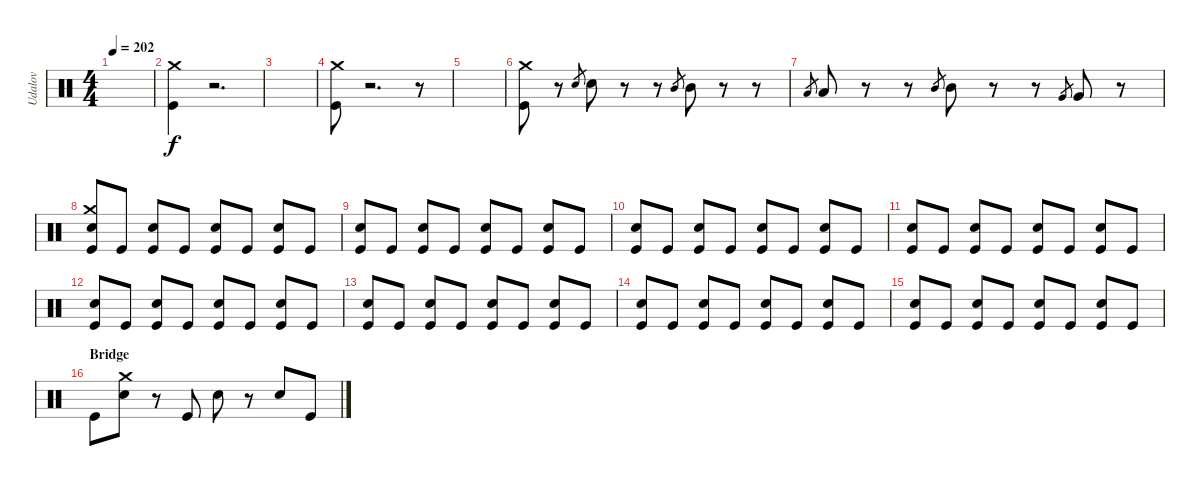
\track ("Udalov" "Udalov") {instrument percussion}
\staff {score}
\articulation defaults
\ts (4 4)
\tempo 202
\clef neutral
\ks c
|
("Kick (hit)" "Crash medium (hit)").4 r.2{d} |
|
("Kick (hit)" "Crash medium (hit)").8 r.2{d} r.8 |
|
("Kick (hit)" "Crash medium (hit)").8 r.8 "Electric Snare (hit)".8{gr} "Electric Snare (hit)".8 r.8 r.8 "Mid Tom (hit)".8{gr} "Mid Tom (hit)".8 r.8 r.8 |
"Low Tom (hit)".8{gr} "Low Tom (hit)".8 r.8 r.8 "Mid Tom (hit)".8{gr} "Mid Tom (hit)".8 r.8 r.8 "Very Low Tom (hit)".8{gr} "Very Low Tom (hit)".8 r.8 |
("Kick (hit)" "Electric Snare (hit)" "Crash medium (hit)").8 "Kick (hit)".8 ("Kick (hit)" "Electric Snare (hit)").8 "Kick (hit)".8 ("Kick (hit)" "Electric Snare (hit)").8 "Kick (hit)".8 ("Kick (hit)" "Electric Snare (hit)").8 "Kick (hit)".8 |
("Kick (hit)" "Electric Snare (hit)").8 "Kick (hit)".8 ("Kick (hit)" "Electric Snare (hit)").8 "Kick (hit)".8 ("Kick (hit)" "Electric Snare (hit)").8 "Kick (hit)".8 ("Kick (hit)" "Electric Snare (hit)").8 "Kick (hit)".8 |
("Kick (hit)" "Electric Snare (hit)").8 "Kick (hit)".8 ("Kick (hit)" "Electric Snare (hit)").8 "Kick (hit)".8 ("Kick (hit)" "Electric Snare (hit)").8 "Kick (hit)".8 ("Kick (hit)" "Electric Snare (hit)").8 "Kick (hit)".8 |
("Kick (hit)" "Electric Snare (hit)").8 "Kick (hit)".8 ("Kick (hit)" "Electric Snare (hit)").8 "Kick (hit)".8 ("Kick (hit)" "Electric Snare (hit)").8 "Kick (hit)".8 ("Kick (hit)" "Electric Snare (hit)").8 "Kick (hit)".8 |
("Kick (hit)" "Electric Snare (hit)").8 "Kick (hit)".8 ("Kick (hit)" "Electric Snare (hit)").8 "Kick (hit)".8 ("Kick (hit)" "Electric Snare (hit)").8 "Kick (hit)".8 ("Kick (hit)" "Electric Snare (hit)").8 "Kick (hit)".8 |
("Kick (hit)" "Electric Snare (hit)").8 "Kick (hit)".8 ("Kick (hit)" "Electric Snare (hit)").8 "Kick (hit)".8 ("Kick (hit)" "Electric Snare (hit)").8 "Kick (hit)".8 ("Kick (hit)" "Electric Snare (hit)").8 "Kick (hit)".8 |
("Kick (hit)" "Electric Snare (hit)").8 "Kick (hit)".8 ("Kick (hit)" "Electric Snare (hit)").8 "Kick (hit)".8 ("Kick (hit)" "Electric Snare (hit)").8 "Kick (hit)".8 ("Kick (hit)" "Electric Snare (hit)").8 "Kick (hit)".8 |
("Kick (hit)" "Electric Snare (hit)").8 "Kick (hit)".8 ("Kick (hit)" "Electric Snare (hit)").8 "Kick (hit)".8 ("Kick (hit)" "Electric Snare (hit)").8 "Kick (hit)".8 ("Kick (hit)" "Electric Snare (hit)").8 "Kick (hit)".8 |
\section ("" "Bridge ")
"Kick (hit)".8 ("Electric Snare (hit)" "Crash medium (hit)").8 r.8 "Kick (hit)".8 "Electric Snare (hit)".8 r.8 "Electric Snare (hit)".8 "Kick (hit)".8
